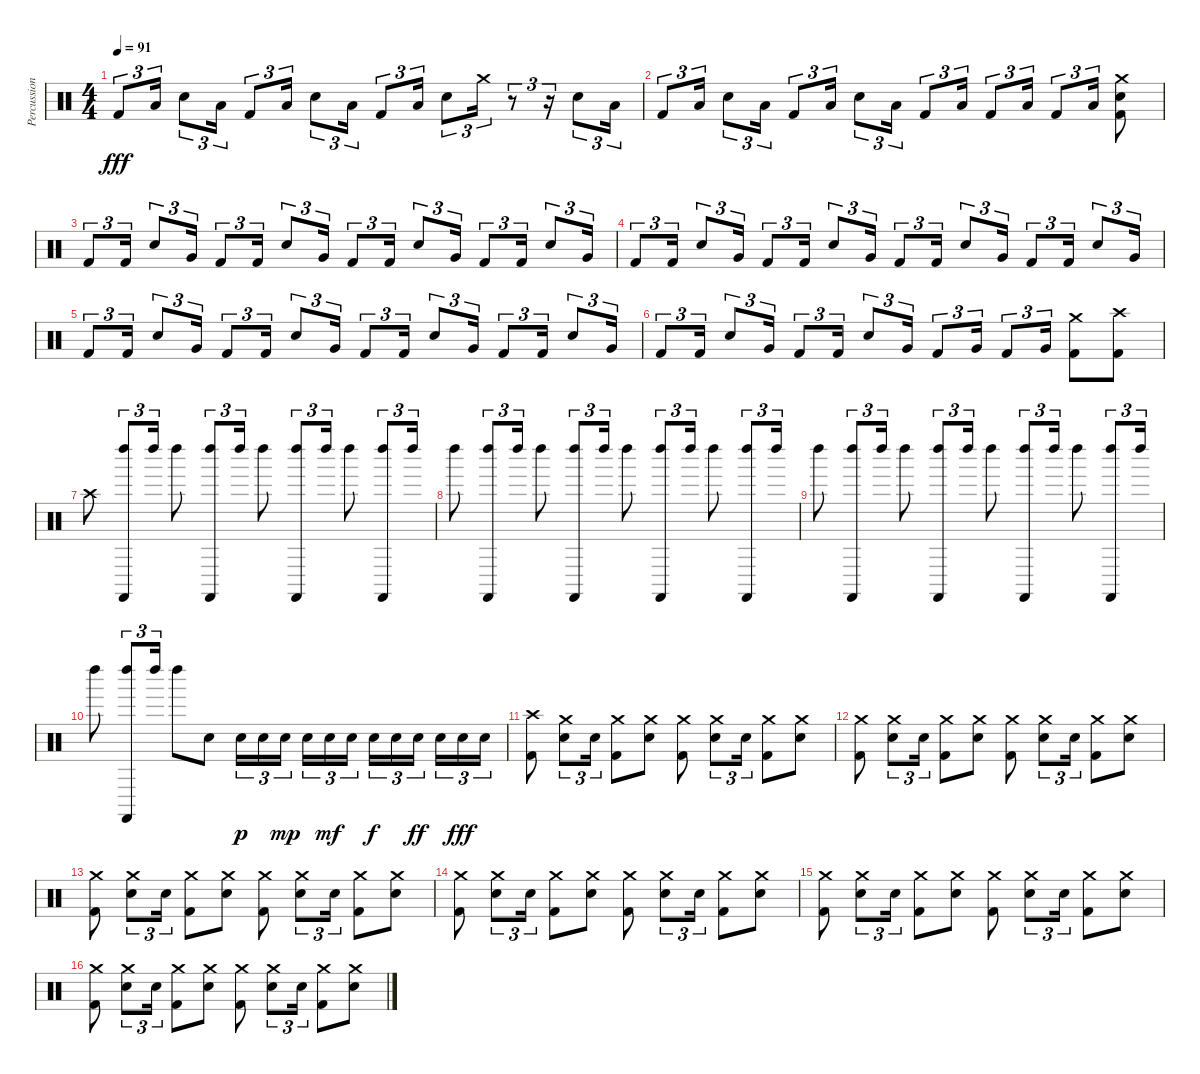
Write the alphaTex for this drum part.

\track ("Percussion" "Percussion") {instrument percussion}
\staff {score}
\articulation defaults
\ts (4 4)
\tempo 91
\clef neutral
\ks c "Kick (hit) 2".8{tu (3 2) dy fff} "Low Floor Tom (hit)".16{tu (3 2)} "Electric Snare (hit)".8{tu (3 2)} "Low Floor Tom (hit)".16{tu (3 2)} "Kick (hit) 2".8{tu (3 2)} "Low Floor Tom (hit)".16{tu (3 2)} "Electric Snare (hit)".8{tu (3 2)} "Low Floor Tom (hit)".16{tu (3 2)} "Kick (hit) 2".8{tu (3 2)} "Low Floor Tom (hit)".16{tu (3 2)} "Electric Snare (hit)".8{tu (3 2)} "Crash medium (hit)".16{tu (3 2)}
r.8{tu (3 2)} r.16{tu (3 2)} "Electric Snare (hit)".8{tu (3 2)} "Low Floor Tom (hit)".16{tu (3 2)} |
"Kick (hit) 2".8{tu (3 2)} "Low Floor Tom (hit)".16{tu (3 2)} "Electric Snare (hit)".8{tu (3 2)} "Low Floor Tom (hit)".16{tu (3 2)} "Kick (hit) 2".8{tu (3 2)} "Low Floor Tom (hit)".16{tu (3 2)} "Electric Snare (hit)".8{tu (3 2)} "Low Floor Tom (hit)".16{tu (3 2)} "Kick (hit) 2".8{tu (3 2)} "Low Floor Tom (hit)".16{tu (3 2)} "Kick (hit) 2".8{tu (3 2)} "Low Floor Tom (hit)".16{tu (3 2)} "Kick (hit) 2".8{tu (3 2)} "Low Floor Tom (hit)".16{tu (3 2)} ("Crash medium (hit)" "Electric Snare (hit)" "Kick (hit) 2").8 |
"Kick (hit) 2".8{tu (3 2)} "Kick (hit) 2".16{tu (3 2)} "Electric Snare (hit)".8{tu (3 2)} "Very Low Tom (hit)".16{tu (3 2)} "Kick (hit) 2".8{tu (3 2)} "Kick (hit) 2".16{tu (3 2)} "Electric Snare (hit)".8{tu (3 2)} "Very Low Tom (hit)".16{tu (3 2)} "Kick (hit) 2".8{tu (3 2)} "Kick (hit) 2".16{tu (3 2)} "Electric Snare (hit)".8{tu (3 2)} "Very Low Tom (hit)".16{tu (3 2)} "Kick (hit) 2".8{tu (3 2)} "Kick (hit) 2".16{tu (3 2)} "Electric Snare (hit)".8{tu (3 2)} "Very Low Tom (hit)".16{tu (3 2)} |
"Kick (hit) 2".8{tu (3 2)} "Kick (hit) 2".16{tu (3 2)} "Electric Snare (hit)".8{tu (3 2)} "Very Low Tom (hit)".16{tu (3 2)} "Kick (hit) 2".8{tu (3 2)} "Kick (hit) 2".16{tu (3 2)} "Electric Snare (hit)".8{tu (3 2)} "Very Low Tom (hit)".16{tu (3 2)} "Kick (hit) 2".8{tu (3 2)} "Kick (hit) 2".16{tu (3 2)} "Electric Snare (hit)".8{tu (3 2)} "Very Low Tom (hit)".16{tu (3 2)} "Kick (hit) 2".8{tu (3 2)} "Kick (hit) 2".16{tu (3 2)} "Electric Snare (hit)".8{tu (3 2)} "Very Low Tom (hit)".16{tu (3 2)} |
"Kick (hit) 2".8{tu (3 2)} "Kick (hit) 2".16{tu (3 2)} "Electric Snare (hit)".8{tu (3 2)} "Very Low Tom (hit)".16{tu (3 2)} "Kick (hit) 2".8{tu (3 2)} "Kick (hit) 2".16{tu (3 2)} "Electric Snare (hit)".8{tu (3 2)} "Very Low Tom (hit)".16{tu (3 2)} "Kick (hit) 2".8{tu (3 2)} "Kick (hit) 2".16{tu (3 2)} "Electric Snare (hit)".8{tu (3 2)} "Very Low Tom (hit)".16{tu (3 2)} "Kick (hit) 2".8{tu (3 2)} "Kick (hit) 2".16{tu (3 2)} "Electric Snare (hit)".8{tu (3 2)} "Very Low Tom (hit)".16{tu (3 2)} |
"Kick (hit) 2".8{tu (3 2)} "Kick (hit) 2".16{tu (3 2)} "Electric Snare (hit)".8{tu (3 2)} "Very Low Tom (hit)".16{tu (3 2)} "Kick (hit) 2".8{tu (3 2)} "Kick (hit) 2".16{tu (3 2)} "Electric Snare (hit)".8{tu (3 2)} "Very Low Tom (hit)".16{tu (3 2)} "Kick (hit) 2".8{tu (3 2)} "Very Low Tom (hit)".16{tu (3 2)} "Kick (hit) 2".8{tu (3 2)} "Very Low Tom (hit)".16{tu (3 2)} ("Crash medium (hit)" "Kick (hit) 2").8 ("Crash high (hit)" "Kick (hit) 2").8 |
"Crash high (hit)".8 ("Left Maraca (hit)" "Castanets (hit)").8{tu (3 2)} "Left Maraca (hit)".16{tu (3 2)} "Left Maraca (hit)".8 ("Left Maraca (hit)" "Castanets (hit)").8{tu (3 2)} "Left Maraca (hit)".16{tu (3 2)} "Left Maraca (hit)".8 ("Left Maraca (hit)" "Castanets (hit)").8{tu (3 2)} "Left Maraca (hit)".16{tu (3 2)} "Left Maraca (hit)".8 ("Left Maraca (hit)" "Castanets (hit)").8{tu (3 2)} "Left Maraca (hit)".16{tu (3 2)} |
"Left Maraca (hit)".8 ("Left Maraca (hit)" "Castanets (hit)").8{tu (3 2)} "Left Maraca (hit)".16{tu (3 2)} "Left Maraca (hit)".8 ("Left Maraca (hit)" "Castanets (hit)").8{tu (3 2)} "Left Maraca (hit)".16{tu (3 2)} "Left Maraca (hit)".8 ("Left Maraca (hit)" "Castanets (hit)").8{tu (3 2)} "Left Maraca (hit)".16{tu (3 2)} "Left Maraca (hit)".8 ("Left Maraca (hit)" "Castanets (hit)").8{tu (3 2)} "Left Maraca (hit)".16{tu (3 2)} |
"Left Maraca (hit)".8 ("Left Maraca (hit)" "Castanets (hit)").8{tu (3 2)} "Left Maraca (hit)".16{tu (3 2)} "Left Maraca (hit)".8 ("Left Maraca (hit)" "Castanets (hit)").8{tu (3 2)} "Left Maraca (hit)".16{tu (3 2)} "Left Maraca (hit)".8 ("Left Maraca (hit)" "Castanets (hit)").8{tu (3 2)} "Left Maraca (hit)".16{tu (3 2)} "Left Maraca (hit)".8 ("Left Maraca (hit)" "Castanets (hit)").8{tu (3 2)} "Left Maraca (hit)".16{tu (3 2)} |
"Left Maraca (hit)".8 ("Left Maraca (hit)" "Castanets (hit)").8{tu (3 2)} "Left Maraca (hit)".16{tu (3 2)} "Left Maraca (hit)".8 "Electric Snare (hit)".8 "Electric Snare (hit)".16{tu (3 2) dy p} "Electric Snare (hit)".16{tu (3 2)} "Electric Snare (hit)".16{tu (3 2) dy mp beam splitsecondary} "Electric Snare (hit)".16{tu (3 2)} "Electric Snare (hit)".16{tu (3 2) dy mf} "Electric Snare (hit)".16{tu (3 2)} "Electric Snare (hit)".16{tu (3 2) dy f} "Electric Snare (hit)".16{tu (3 2)} "Electric Snare (hit)".16{tu (3 2) dy ff beam splitsecondary} "Electric Snare (hit)".16{tu (3 2)} "Electric Snare (hit)".16{tu (3 2) dy fff} "Electric Snare (hit)".16{tu (3 2)} |
("Crash high (hit)" "Kick (hit) 2").8 ("Crash medium (hit)" "Electric Snare (hit)").8{tu (3 2)} "Electric Snare (hit)".16{tu (3 2)} ("Crash medium (hit)" "Kick (hit) 2").8 ("Crash medium (hit)" "Electric Snare (hit)").8 ("Crash medium (hit)" "Kick (hit) 2").8 ("Crash medium (hit)" "Electric Snare (hit)").8{tu (3 2)} "Electric Snare (hit)".16{tu (3 2)} ("Crash medium (hit)" "Kick (hit) 2").8 ("Crash medium (hit)" "Electric Snare (hit)").8 |
("Crash medium (hit)" "Kick (hit) 2").8 ("Crash medium (hit)" "Electric Snare (hit)").8{tu (3 2)} "Electric Snare (hit)".16{tu (3 2)} ("Crash medium (hit)" "Kick (hit) 2").8 ("Crash medium (hit)" "Electric Snare (hit)").8 ("Crash medium (hit)" "Kick (hit) 2").8 ("Crash medium (hit)" "Electric Snare (hit)").8{tu (3 2)} "Electric Snare (hit)".16{tu (3 2)} ("Crash medium (hit)" "Kick (hit) 2").8 ("Crash medium (hit)" "Electric Snare (hit)").8 |
("Crash medium (hit)" "Kick (hit) 2").8 ("Crash medium (hit)" "Electric Snare (hit)").8{tu (3 2)} "Electric Snare (hit)".16{tu (3 2)} ("Crash medium (hit)" "Kick (hit) 2").8 ("Crash medium (hit)" "Electric Snare (hit)").8 ("Crash medium (hit)" "Kick (hit) 2").8 ("Crash medium (hit)" "Electric Snare (hit)").8{tu (3 2)} "Electric Snare (hit)".16{tu (3 2)} ("Crash medium (hit)" "Kick (hit) 2").8 ("Crash medium (hit)" "Electric Snare (hit)").8 |
("Crash medium (hit)" "Kick (hit) 2").8 ("Crash medium (hit)" "Electric Snare (hit)").8{tu (3 2)} "Electric Snare (hit)".16{tu (3 2)} ("Crash medium (hit)" "Kick (hit) 2").8 ("Crash medium (hit)" "Electric Snare (hit)").8 ("Crash medium (hit)" "Kick (hit) 2").8 ("Crash medium (hit)" "Electric Snare (hit)").8{tu (3 2)} "Electric Snare (hit)".16{tu (3 2)} ("Crash medium (hit)" "Kick (hit) 2").8 ("Crash medium (hit)" "Electric Snare (hit)").8 |
("Crash medium (hit)" "Kick (hit) 2").8 ("Crash medium (hit)" "Electric Snare (hit)").8{tu (3 2)} "Electric Snare (hit)".16{tu (3 2)} ("Crash medium (hit)" "Kick (hit) 2").8 ("Crash medium (hit)" "Electric Snare (hit)").8 ("Crash medium (hit)" "Kick (hit) 2").8 ("Crash medium (hit)" "Electric Snare (hit)").8{tu (3 2)} "Electric Snare (hit)".16{tu (3 2)} ("Crash medium (hit)" "Kick (hit) 2").8 ("Crash medium (hit)" "Electric Snare (hit)").8 |
("Crash medium (hit)" "Kick (hit) 2").8 ("Crash medium (hit)" "Electric Snare (hit)").8{tu (3 2)} "Electric Snare (hit)".16{tu (3 2)} ("Crash medium (hit)" "Kick (hit) 2").8 ("Crash medium (hit)" "Electric Snare (hit)").8 ("Crash medium (hit)" "Kick (hit) 2").8 ("Crash medium (hit)" "Electric Snare (hit)").8{tu (3 2)} "Electric Snare (hit)".16{tu (3 2)} ("Crash medium (hit)" "Kick (hit) 2").8 ("Crash medium (hit)" "Electric Snare (hit)").8
